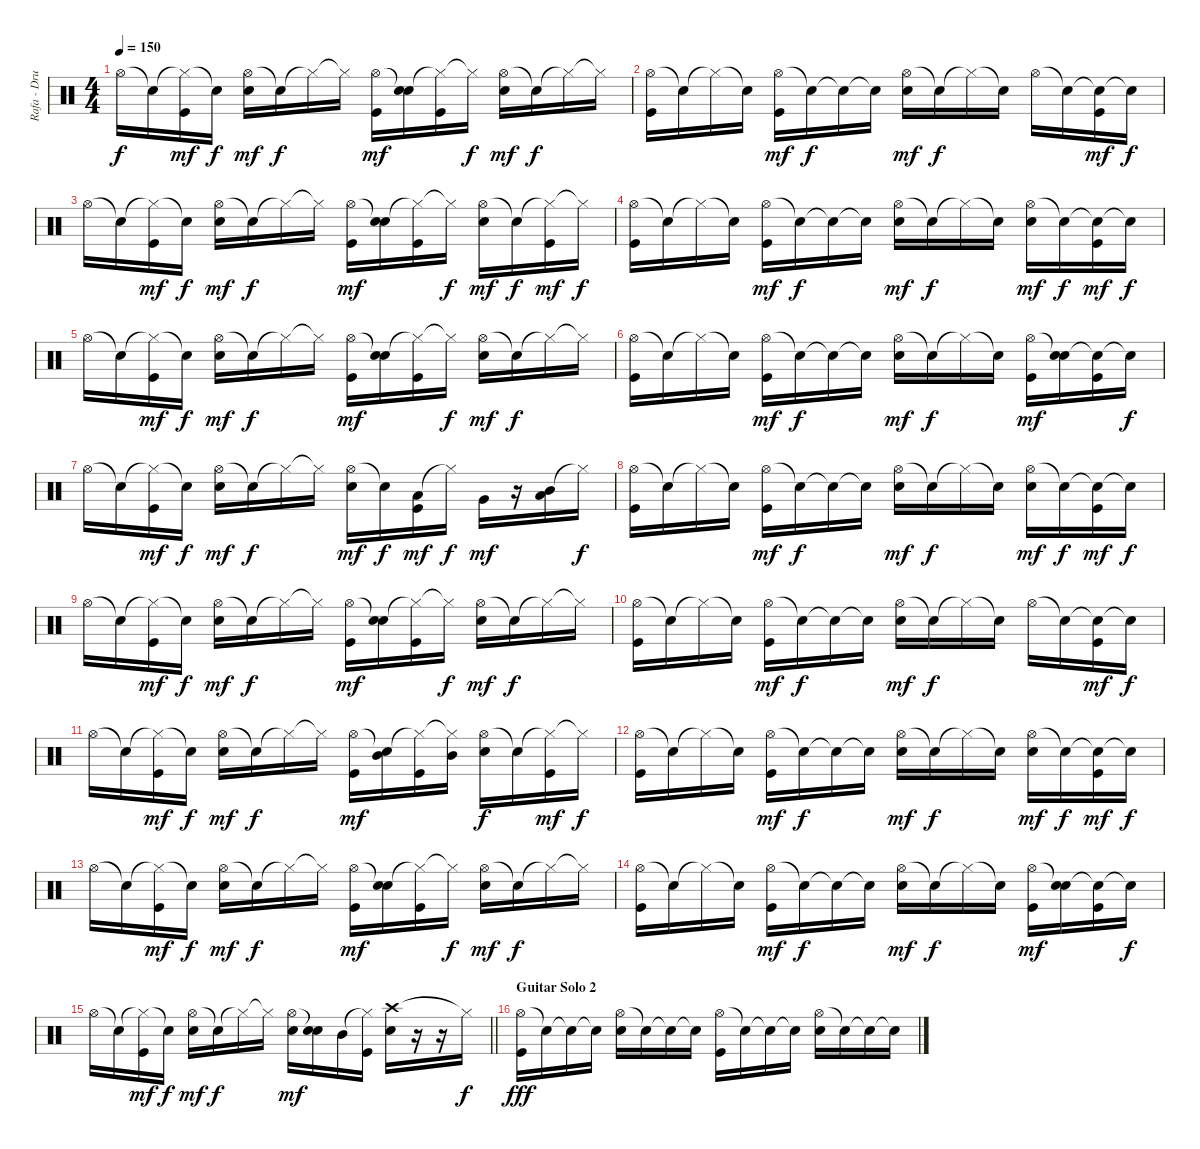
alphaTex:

\track ("Rafa - Drums" "Rafa - Dru") {instrument percussion}
\staff {score}
\articulation defaults
\ts (4 4)
\tempo 150
\clef neutral
\ks c "Hi-Hat (open)".16{dy f} "Snare (hit)"{t}.16
("Hi-Hat (closed)"{t} "Kick (hit)").16{dy mf} "Snare (hit)"{t}.16{dy f} ("Hi-Hat (open)" "Electric Snare (hit)").16{dy mf} "Snare (hit)"{t}.16{dy f} "Hi-Hat (closed)"{t}.16 "Hi-Hat (closed)"{t}.16 ("Hi-Hat (open)" "Kick (hit)").16{dy mf} ("Snare (hit)"{t} "Electric Snare (hit)").16 ("Hi-Hat (closed)"{t} "Kick (hit)").16 "Hi-Hat (closed)"{t}.16{dy f} ("Hi-Hat (open)" "Electric Snare (hit)").16{dy mf} "Snare (hit)"{t}.16{dy f} "Hi-Hat (closed)"{t}.16 "Hi-Hat (closed)"{t}.16 |
("Hi-Hat (open)" "Kick (hit)").16 "Snare (hit)"{t}.16 "Hi-Hat (closed)"{t}.16 "Snare (hit)"{t}.16 ("Hi-Hat (open)" "Kick (hit)").16{dy mf} "Snare (hit)"{t}.16{dy f} "Snare (hit)"{t}.16 "Snare (hit)"{t}.16 ("Hi-Hat (open)" "Electric Snare (hit)").16{dy mf} "Snare (hit)"{t}.16{dy f} "Hi-Hat (closed)"{t}.16 "Snare (hit)"{t}.16 "Hi-Hat (open)".16 "Snare (hit)"{t}.16 ("Snare (hit)"{t} "Kick (hit)").16{dy mf} "Snare (hit)"{t}.16{dy f} |
"Hi-Hat (open)".16 "Snare (hit)"{t}.16 ("Hi-Hat (closed)"{t} "Kick (hit)").16{dy mf} "Snare (hit)"{t}.16{dy f} ("Hi-Hat (open)" "Electric Snare (hit)").16{dy mf} "Snare (hit)"{t}.16{dy f} "Hi-Hat (closed)"{t}.16 "Hi-Hat (closed)"{t}.16 ("Hi-Hat (open)" "Kick (hit)").16{dy mf} ("Snare (hit)"{t} "Electric Snare (hit)").16 ("Hi-Hat (closed)"{t} "Kick (hit)").16 "Hi-Hat (closed)"{t}.16{dy f} ("Hi-Hat (open)" "Electric Snare (hit)").16{dy mf} "Snare (hit)"{t}.16{dy f} ("Hi-Hat (closed)"{t} "Kick (hit)").16{dy mf} "Hi-Hat (closed)"{t}.16{dy f} |
("Hi-Hat (open)" "Kick (hit)").16 "Snare (hit)"{t}.16 "Hi-Hat (closed)"{t}.16 "Snare (hit)"{t}.16 ("Hi-Hat (open)" "Kick (hit)").16{dy mf} "Snare (hit)"{t}.16{dy f} "Snare (hit)"{t}.16 "Snare (hit)"{t}.16 ("Hi-Hat (open)" "Electric Snare (hit)").16{dy mf} "Snare (hit)"{t}.16{dy f} "Hi-Hat (closed)"{t}.16 "Snare (hit)"{t}.16 ("Hi-Hat (open)" "Electric Snare (hit)").16{dy mf} "Snare (hit)"{t}.16{dy f} ("Snare (hit)"{t} "Kick (hit)").16{dy mf} "Snare (hit)"{t}.16{dy f} |
"Hi-Hat (open)".16 "Snare (hit)"{t}.16 ("Hi-Hat (closed)"{t} "Kick (hit)").16{dy mf} "Snare (hit)"{t}.16{dy f} ("Hi-Hat (open)" "Electric Snare (hit)").16{dy mf} "Snare (hit)"{t}.16{dy f} "Hi-Hat (closed)"{t}.16 "Hi-Hat (closed)"{t}.16 ("Hi-Hat (open)" "Kick (hit)").16{dy mf} ("Snare (hit)"{t} "Electric Snare (hit)").16 ("Hi-Hat (closed)"{t} "Kick (hit)").16 "Hi-Hat (closed)"{t}.16{dy f} ("Hi-Hat (open)" "Electric Snare (hit)").16{dy mf} "Snare (hit)"{t}.16{dy f} "Hi-Hat (closed)"{t}.16 "Hi-Hat (closed)"{t}.16 |
("Hi-Hat (open)" "Kick (hit)").16 "Snare (hit)"{t}.16 "Hi-Hat (closed)"{t}.16 "Snare (hit)"{t}.16 ("Hi-Hat (open)" "Kick (hit)").16{dy mf} "Snare (hit)"{t}.16{dy f} "Snare (hit)"{t}.16 "Snare (hit)"{t}.16 ("Hi-Hat (open)" "Electric Snare (hit)").16{dy mf} "Snare (hit)"{t}.16{dy f} "Hi-Hat (closed)"{t}.16 "Snare (hit)"{t}.16 ("Hi-Hat (open)" "Kick (hit)").16{dy mf} ("Snare (hit)"{t} "Electric Snare (hit)").16 ("Snare (hit)"{t} "Kick (hit)").16 "Snare (hit)"{t}.16{dy f} |
"Hi-Hat (open)".16 "Snare (hit)"{t}.16 ("Hi-Hat (closed)"{t} "Kick (hit)").16{dy mf} "Snare (hit)"{t}.16{dy f} ("Hi-Hat (open)" "Electric Snare (hit)").16{dy mf} "Snare (hit)"{t}.16{dy f} "Hi-Hat (closed)"{t}.16 "Hi-Hat (closed)"{t}.16 ("Hi-Hat (open)" "Electric Snare (hit)").16{dy mf} "Snare (hit)"{t}.16{dy f} ("Low Floor Tom (hit)" "Kick (hit)").16{dy mf} "Hi-Hat (closed)"{t}.16{dy f} "Very Low Tom (hit)".16{dy mf} r.16 ("Mid Tom (hit)" "Low Floor Tom (hit)").16 "Hi-Hat (closed)"{t}.16{dy f} |
("Hi-Hat (open)" "Kick (hit)").16 "Snare (hit)"{t}.16 "Hi-Hat (closed)"{t}.16 "Snare (hit)"{t}.16 ("Hi-Hat (open)" "Kick (hit)").16{dy mf} "Snare (hit)"{t}.16{dy f} "Snare (hit)"{t}.16 "Snare (hit)"{t}.16 ("Hi-Hat (open)" "Electric Snare (hit)").16{dy mf} "Snare (hit)"{t}.16{dy f} "Hi-Hat (closed)"{t}.16 "Snare (hit)"{t}.16 ("Hi-Hat (open)" "Electric Snare (hit)").16{dy mf} "Snare (hit)"{t}.16{dy f} ("Snare (hit)"{t} "Kick (hit)").16{dy mf} "Snare (hit)"{t}.16{dy f} |
"Hi-Hat (open)".16 "Snare (hit)"{t}.16 ("Hi-Hat (closed)"{t} "Kick (hit)").16{dy mf} "Snare (hit)"{t}.16{dy f} ("Hi-Hat (open)" "Electric Snare (hit)").16{dy mf} "Snare (hit)"{t}.16{dy f} "Hi-Hat (closed)"{t}.16 "Hi-Hat (closed)"{t}.16 ("Hi-Hat (open)" "Kick (hit)").16{dy mf} ("Snare (hit)"{t} "Electric Snare (hit)").16 ("Hi-Hat (closed)"{t} "Kick (hit)").16 "Hi-Hat (closed)"{t}.16{dy f} ("Hi-Hat (open)" "Electric Snare (hit)").16{dy mf} "Snare (hit)"{t}.16{dy f} "Hi-Hat (closed)"{t}.16 "Hi-Hat (closed)"{t}.16 |
("Hi-Hat (open)" "Kick (hit)").16 "Snare (hit)"{t}.16 "Hi-Hat (closed)"{t}.16 "Snare (hit)"{t}.16 ("Hi-Hat (open)" "Kick (hit)").16{dy mf} "Snare (hit)"{t}.16{dy f} "Snare (hit)"{t}.16 "Snare (hit)"{t}.16 ("Hi-Hat (open)" "Electric Snare (hit)").16{dy mf} "Snare (hit)"{t}.16{dy f} "Hi-Hat (closed)"{t}.16 "Snare (hit)"{t}.16 "Hi-Hat (open)".16 "Snare (hit)"{t}.16 ("Snare (hit)"{t} "Kick (hit)").16{dy mf} "Snare (hit)"{t}.16{dy f} |
"Hi-Hat (open)".16 "Snare (hit)"{t}.16 ("Hi-Hat (closed)"{t} "Kick (hit)").16{dy mf} "Snare (hit)"{t}.16{dy f} ("Hi-Hat (open)" "Electric Snare (hit)").16{dy mf} "Snare (hit)"{t}.16{dy f} "Hi-Hat (closed)"{t}.16 "Hi-Hat (closed)"{t}.16 ("Hi-Hat (open)" "Kick (hit)").16{dy mf} ("Snare (hit)"{t} "Mid Tom (hit)").16 ("Hi-Hat (closed)"{t} "Kick (hit)").16 ("Hi-Hat (closed)"{t} "Mid Tom (hit)").16 ("Hi-Hat (open)" "Electric Snare (hit)").16{dy f} "Snare (hit)"{t}.16 ("Hi-Hat (closed)"{t} "Kick (hit)").16{dy mf} "Hi-Hat (closed)"{t}.16{dy f} |
("Hi-Hat (open)" "Kick (hit)").16 "Snare (hit)"{t}.16 "Hi-Hat (closed)"{t}.16 "Snare (hit)"{t}.16 ("Hi-Hat (open)" "Kick (hit)").16{dy mf} "Snare (hit)"{t}.16{dy f} "Snare (hit)"{t}.16 "Snare (hit)"{t}.16 ("Hi-Hat (open)" "Electric Snare (hit)").16{dy mf} "Snare (hit)"{t}.16{dy f} "Hi-Hat (closed)"{t}.16 "Snare (hit)"{t}.16 ("Hi-Hat (open)" "Electric Snare (hit)").16{dy mf} "Snare (hit)"{t}.16{dy f} ("Snare (hit)"{t} "Kick (hit)").16{dy mf} "Snare (hit)"{t}.16{dy f} |
"Hi-Hat (open)".16 "Snare (hit)"{t}.16 ("Hi-Hat (closed)"{t} "Kick (hit)").16{dy mf} "Snare (hit)"{t}.16{dy f} ("Hi-Hat (open)" "Electric Snare (hit)").16{dy mf} "Snare (hit)"{t}.16{dy f} "Hi-Hat (closed)"{t}.16 "Hi-Hat (closed)"{t}.16 ("Hi-Hat (open)" "Kick (hit)").16{dy mf} ("Snare (hit)"{t} "Electric Snare (hit)").16 ("Hi-Hat (closed)"{t} "Kick (hit)").16 "Hi-Hat (closed)"{t}.16{dy f} ("Hi-Hat (open)" "Electric Snare (hit)").16{dy mf} "Snare (hit)"{t}.16{dy f} "Hi-Hat (closed)"{t}.16 "Hi-Hat (closed)"{t}.16 |
("Hi-Hat (open)" "Kick (hit)").16 "Snare (hit)"{t}.16 "Hi-Hat (closed)"{t}.16 "Snare (hit)"{t}.16 ("Hi-Hat (open)" "Kick (hit)").16{dy mf} "Snare (hit)"{t}.16{dy f} "Snare (hit)"{t}.16 "Snare (hit)"{t}.16 ("Hi-Hat (open)" "Electric Snare (hit)").16{dy mf} "Snare (hit)"{t}.16{dy f} "Hi-Hat (closed)"{t}.16 "Snare (hit)"{t}.16 ("Hi-Hat (open)" "Kick (hit)").16{dy mf} ("Snare (hit)"{t} "Electric Snare (hit)").16 ("Snare (hit)"{t} "Kick (hit)").16 "Snare (hit)"{t}.16{dy f} |
\barLineRight lightlight "Hi-Hat (open)".16 "Snare (hit)"{t}.16
("Hi-Hat (closed)"{t} "Kick (hit)").16{dy mf} "Snare (hit)"{t}.16{dy f} ("Hi-Hat (open)" "Electric Snare (hit)").16{dy mf} "Snare (hit)"{t}.16{dy f} "Hi-Hat (closed)"{t}.16 "Hi-Hat (closed)"{t}.16 ("Hi-Hat (open)" "Electric Snare (hit)").16{dy mf} ("Snare (hit)"{t} "Electric Snare (hit)").16 "Mid Tom (hit)".16 ("Hi-Hat (closed)"{t} "Kick (hit)").16 ("Crash high (hit)" "Electric Snare (hit)").16 r.16 r.16 "Hi-Hat (closed)"{t}.16{dy f} |
\section ("" "Guitar Solo 2")
("Hi-Hat (open)" "Kick (hit)").16{dy fff} "Snare (hit)"{t}.16 "Snare (hit)"{t}.16 "Snare (hit)"{t}.16 ("Hi-Hat (open)" "Electric Snare (hit)").16 "Snare (hit)"{t}.16 "Snare (hit)"{t}.16 "Snare (hit)"{t}.16 ("Hi-Hat (open)" "Kick (hit)").16 "Snare (hit)"{t}.16 "Snare (hit)"{t}.16 "Snare (hit)"{t}.16 ("Hi-Hat (open)" "Electric Snare (hit)").16 "Snare (hit)"{t}.16 "Snare (hit)"{t}.16 "Snare (hit)"{t}.16
